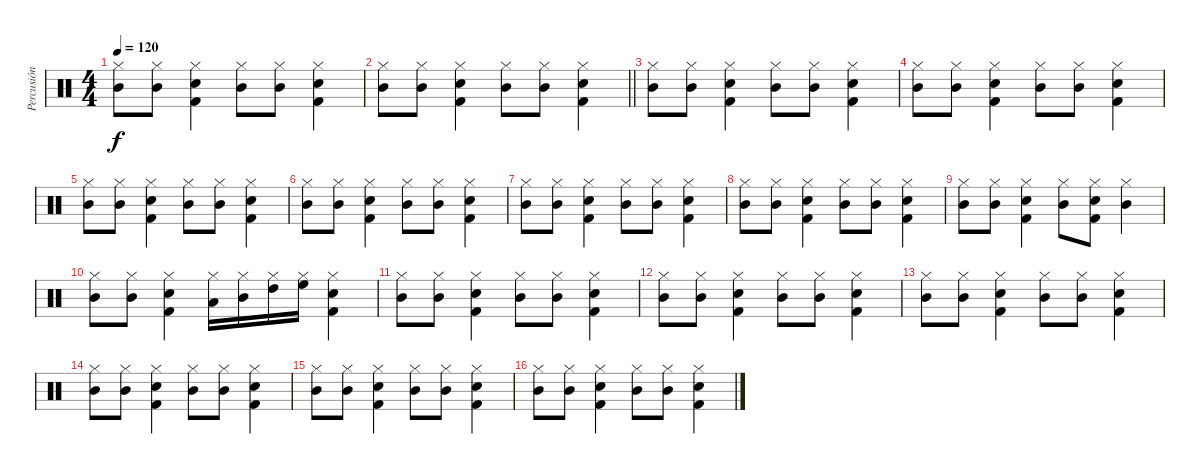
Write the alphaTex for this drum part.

\track ("Percusión" "Percusión") {instrument percussion}
\staff {score}
\articulation defaults
\ts (4 4)
\tempo 120
\clef neutral
\ks c
("Hi-Hat (closed)" "Mid Tom (hit)").8{dy f} ("Hi-Hat (closed)" "Mid Tom (hit)").8 ("Hi-Hat (closed)" "Snare (hit) 2" "Kick (hit) 2").4 ("Hi-Hat (closed)" "Mid Tom (hit)").8 ("Hi-Hat (closed)" "Mid Tom (hit)").8 ("Hi-Hat (closed)" "Snare (hit) 2" "Kick (hit) 2").4 |
\barLineRight lightlight
("Hi-Hat (closed)" "Mid Tom (hit)").8 ("Hi-Hat (closed)" "Mid Tom (hit)").8 ("Hi-Hat (closed)" "Snare (hit) 2" "Kick (hit) 2").4 ("Hi-Hat (closed)" "Mid Tom (hit)").8 ("Hi-Hat (closed)" "Mid Tom (hit)").8 ("Hi-Hat (closed)" "Snare (hit) 2" "Kick (hit) 2").4 |
("Hi-Hat (closed)" "Mid Tom (hit)").8 ("Hi-Hat (closed)" "Mid Tom (hit)").8 ("Hi-Hat (closed)" "Snare (hit) 2" "Kick (hit) 2").4 ("Hi-Hat (closed)" "Mid Tom (hit)").8 ("Hi-Hat (closed)" "Mid Tom (hit)").8 ("Hi-Hat (closed)" "Snare (hit) 2" "Kick (hit) 2").4 |
("Hi-Hat (closed)" "Mid Tom (hit)").8 ("Hi-Hat (closed)" "Mid Tom (hit)").8 ("Hi-Hat (closed)" "Snare (hit) 2" "Kick (hit) 2").4 ("Hi-Hat (closed)" "Mid Tom (hit)").8 ("Hi-Hat (closed)" "Mid Tom (hit)").8 ("Hi-Hat (closed)" "Snare (hit) 2" "Kick (hit) 2").4 |
("Hi-Hat (closed)" "Mid Tom (hit)").8 ("Hi-Hat (closed)" "Mid Tom (hit)").8 ("Hi-Hat (closed)" "Snare (hit) 2" "Kick (hit) 2").4 ("Hi-Hat (closed)" "Mid Tom (hit)").8 ("Hi-Hat (closed)" "Mid Tom (hit)").8 ("Hi-Hat (closed)" "Snare (hit) 2" "Kick (hit) 2").4 |
("Hi-Hat (closed)" "Mid Tom (hit)").8 ("Hi-Hat (closed)" "Mid Tom (hit)").8 ("Hi-Hat (closed)" "Snare (hit) 2" "Kick (hit) 2").4 ("Hi-Hat (closed)" "Mid Tom (hit)").8 ("Hi-Hat (closed)" "Mid Tom (hit)").8 ("Hi-Hat (closed)" "Snare (hit) 2" "Kick (hit) 2").4 |
("Hi-Hat (closed)" "Mid Tom (hit)").8 ("Hi-Hat (closed)" "Mid Tom (hit)").8 ("Hi-Hat (closed)" "Snare (hit) 2" "Kick (hit) 2").4 ("Hi-Hat (closed)" "Mid Tom (hit)").8 ("Hi-Hat (closed)" "Mid Tom (hit)").8 ("Hi-Hat (closed)" "Snare (hit) 2" "Kick (hit) 2").4 |
("Hi-Hat (closed)" "Mid Tom (hit)").8 ("Hi-Hat (closed)" "Mid Tom (hit)").8 ("Hi-Hat (closed)" "Snare (hit) 2" "Kick (hit) 2").4 ("Hi-Hat (closed)" "Mid Tom (hit)").8 ("Hi-Hat (closed)" "Mid Tom (hit)").8 ("Hi-Hat (closed)" "Snare (hit) 2" "Kick (hit) 2").4 |
("Hi-Hat (closed)" "Mid Tom (hit)").8 ("Hi-Hat (closed)" "Mid Tom (hit)").8 ("Hi-Hat (closed)" "Snare (hit) 2" "Kick (hit) 2").4 ("Hi-Hat (closed)" "Mid Tom (hit)").8 ("Hi-Hat (closed)" "Snare (hit) 2" "Kick (hit) 2").8 ("Hi-Hat (closed)" "Mid Tom (hit)").4 |
("Hi-Hat (closed)" "Mid Tom (hit)").8 ("Hi-Hat (closed)" "Mid Tom (hit)").8 ("Hi-Hat (closed)" "Snare (hit) 2" "Kick (hit) 2").4 ("Hi-Hat (closed)" "Low Tom (hit)").16 ("Hi-Hat (closed)" "Mid Tom (hit)").16 ("Hi-Hat (closed)" "High Tom (hit)").16 ("Hi-Hat (closed)" "High Floor Tom (hit)").16 ("Hi-Hat (closed)" "Snare (hit) 2" "Kick (hit) 2").4 |
("Hi-Hat (closed)" "Mid Tom (hit)").8 ("Hi-Hat (closed)" "Mid Tom (hit)").8 ("Hi-Hat (closed)" "Snare (hit) 2" "Kick (hit) 2").4 ("Hi-Hat (closed)" "Mid Tom (hit)").8 ("Hi-Hat (closed)" "Mid Tom (hit)").8 ("Hi-Hat (closed)" "Snare (hit) 2" "Kick (hit) 2").4 |
("Hi-Hat (closed)" "Mid Tom (hit)").8 ("Hi-Hat (closed)" "Mid Tom (hit)").8 ("Hi-Hat (closed)" "Snare (hit) 2" "Kick (hit) 2").4 ("Hi-Hat (closed)" "Mid Tom (hit)").8 ("Hi-Hat (closed)" "Mid Tom (hit)").8 ("Hi-Hat (closed)" "Snare (hit) 2" "Kick (hit) 2").4 |
("Hi-Hat (closed)" "Mid Tom (hit)").8 ("Hi-Hat (closed)" "Mid Tom (hit)").8 ("Hi-Hat (closed)" "Snare (hit) 2" "Kick (hit) 2").4 ("Hi-Hat (closed)" "Mid Tom (hit)").8 ("Hi-Hat (closed)" "Mid Tom (hit)").8 ("Hi-Hat (closed)" "Snare (hit) 2" "Kick (hit) 2").4 |
("Hi-Hat (closed)" "Mid Tom (hit)").8 ("Hi-Hat (closed)" "Mid Tom (hit)").8 ("Hi-Hat (closed)" "Snare (hit) 2" "Kick (hit) 2").4 ("Hi-Hat (closed)" "Mid Tom (hit)").8 ("Hi-Hat (closed)" "Mid Tom (hit)").8 ("Hi-Hat (closed)" "Snare (hit) 2" "Kick (hit) 2").4 |
("Hi-Hat (closed)" "Mid Tom (hit)").8 ("Hi-Hat (closed)" "Mid Tom (hit)").8 ("Hi-Hat (closed)" "Snare (hit) 2" "Kick (hit) 2").4 ("Hi-Hat (closed)" "Mid Tom (hit)").8 ("Hi-Hat (closed)" "Mid Tom (hit)").8 ("Hi-Hat (closed)" "Snare (hit) 2" "Kick (hit) 2").4 |
("Hi-Hat (closed)" "Mid Tom (hit)").8 ("Hi-Hat (closed)" "Mid Tom (hit)").8 ("Hi-Hat (closed)" "Snare (hit) 2" "Kick (hit) 2").4 ("Hi-Hat (closed)" "Mid Tom (hit)").8 ("Hi-Hat (closed)" "Mid Tom (hit)").8 ("Hi-Hat (closed)" "Snare (hit) 2" "Kick (hit) 2").4
